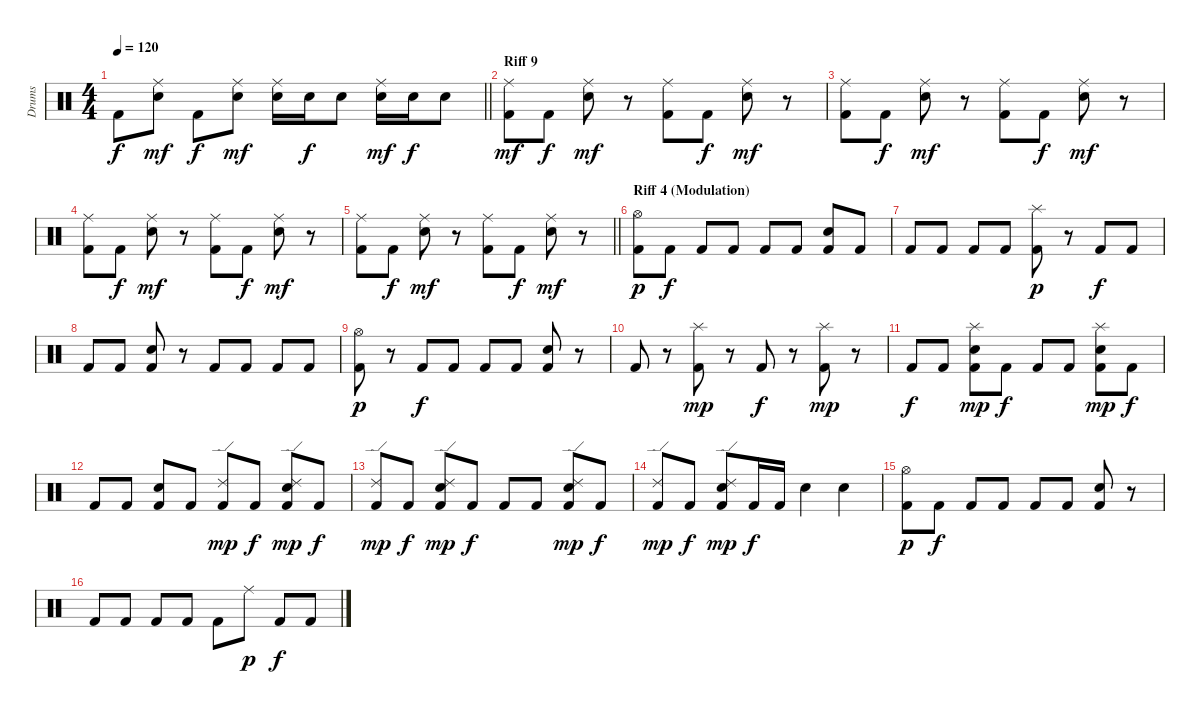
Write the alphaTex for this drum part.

\track ("Drums" "Drums") {instrument percussion}
\staff {score}
\articulation defaults
\ts (4 4)
\tempo 120
\clef neutral
\barLineRight lightlight
\ks c "Kick (hit) 2".8{dy f}
("Ride (middle)" "Snare (hit) 2").8{dy mf} "Kick (hit) 2".8{dy f} ("Ride (middle)" "Snare (hit) 2").8{dy mf} ("Ride (middle)" "Snare (hit) 2").16 "Snare (hit) 2".16{dy f} "Snare (hit) 2".8 ("Ride (middle)" "Snare (hit) 2").16{dy mf} "Snare (hit) 2".16{dy f} "Snare (hit) 2".8 |
\section ("" "Riff 9")
("Kick (hit) 2" "Ride (middle)").8{dy mf} "Kick (hit) 2".8{dy f} ("Ride (middle)" "Snare (hit) 2").8{dy mf} r.8 ("Kick (hit) 2" "Ride (middle)").8 "Kick (hit) 2".8{dy f} ("Ride (middle)" "Snare (hit) 2").8{dy mf} r.8 |
("Kick (hit) 2" "Ride (middle)").8 "Kick (hit) 2".8{dy f} ("Ride (middle)" "Snare (hit) 2").8{dy mf} r.8 ("Kick (hit) 2" "Ride (middle)").8 "Kick (hit) 2".8{dy f} ("Ride (middle)" "Snare (hit) 2").8{dy mf} r.8 |
("Kick (hit) 2" "Ride (middle)").8 "Kick (hit) 2".8{dy f} ("Ride (middle)" "Snare (hit) 2").8{dy mf} r.8 ("Kick (hit) 2" "Ride (middle)").8 "Kick (hit) 2".8{dy f} ("Ride (middle)" "Snare (hit) 2").8{dy mf} r.8 |
\barLineRight lightlight
("Kick (hit) 2" "Ride (middle)").8 "Kick (hit) 2".8{dy f} ("Ride (middle)" "Snare (hit) 2").8{dy mf} r.8 ("Kick (hit) 2" "Ride (middle)").8 "Kick (hit) 2".8{dy f} ("Ride (middle)" "Snare (hit) 2").8{dy mf} r.8 |
\section ("" "Riff 4 (Modulation)")
("Kick (hit) 2" "Hi-Hat (open)").8{dy p} "Kick (hit) 2".8{dy f} "Kick (hit) 2".8 "Kick (hit) 2".8 "Kick (hit) 2".8 "Kick (hit) 2".8 ("Kick (hit) 2" "Snare (hit) 2").8 "Kick (hit) 2".8 |
"Kick (hit) 2".8 "Kick (hit) 2".8 "Kick (hit) 2".8 "Kick (hit) 2".8 ("Kick (hit) 2" "Splash (hit)").8{dy p} r.8 "Kick (hit) 2".8{dy f} "Kick (hit) 2".8 |
"Kick (hit) 2".8 "Kick (hit) 2".8 ("Kick (hit) 2" "Snare (hit) 2").8 r.8 "Kick (hit) 2".8 "Kick (hit) 2".8 "Kick (hit) 2".8 "Kick (hit) 2".8 |
("Kick (hit) 2" "Hi-Hat (open)").8{dy p} r.8 "Kick (hit) 2".8{dy f} "Kick (hit) 2".8 "Kick (hit) 2".8 "Kick (hit) 2".8 ("Kick (hit) 2" "Snare (hit) 2").8 r.8 |
"Kick (hit) 2".8 r.8 ("Kick (hit) 2" "Splash (hit)").8{dy mp} r.8 "Kick (hit) 2".8{dy f} r.8 ("Kick (hit) 2" "Splash (hit)").8{dy mp} r.8 |
"Kick (hit) 2".8{dy f} "Kick (hit) 2".8 ("Kick (hit) 2" "Splash (hit)" "Snare (hit) 2").8{dy mp} "Kick (hit) 2".8{dy f} "Kick (hit) 2".8 "Kick (hit) 2".8 ("Kick (hit) 2" "Splash (hit)" "Snare (hit) 2").8{dy mp} "Kick (hit) 2".8{dy f} |
"Kick (hit) 2".8 "Kick (hit) 2".8 ("Kick (hit) 2" "Snare (hit) 2").8 "Kick (hit) 2".8 ("Kick (hit) 2" "Ride (edge) 2").8{dy mp} "Kick (hit) 2".8{dy f} ("Kick (hit) 2" "Ride (edge) 2" "Snare (hit) 2").8{dy mp} "Kick (hit) 2".8{dy f} |
("Kick (hit) 2" "Ride (edge) 2").8{dy mp} "Kick (hit) 2".8{dy f} ("Kick (hit) 2" "Ride (edge) 2" "Snare (hit) 2").8{dy mp} "Kick (hit) 2".8{dy f} "Kick (hit) 2".8 "Kick (hit) 2".8 ("Kick (hit) 2" "Ride (edge) 2" "Snare (hit) 2").8{dy mp} "Kick (hit) 2".8{dy f} |
("Kick (hit) 2" "Ride (edge) 2").8{dy mp} "Kick (hit) 2".8{dy f} ("Kick (hit) 2" "Ride (edge) 2" "Snare (hit) 2").8{dy mp} "Kick (hit) 2".16{dy f} "Kick (hit) 2".16 "Snare (hit) 2".4 "Snare (hit) 2".4 |
("Kick (hit) 2" "Hi-Hat (open)").8{dy p} "Kick (hit) 2".8{dy f} "Kick (hit) 2".8 "Kick (hit) 2".8 "Kick (hit) 2".8 "Kick (hit) 2".8 ("Kick (hit) 2" "Snare (hit) 2").8 r.8 |
"Kick (hit) 2".8 "Kick (hit) 2".8 "Kick (hit) 2".8 "Kick (hit) 2".8 "Kick (hit) 2".8 "Ride (middle)".8{dy p} "Kick (hit) 2".8{dy f} "Kick (hit) 2".8
